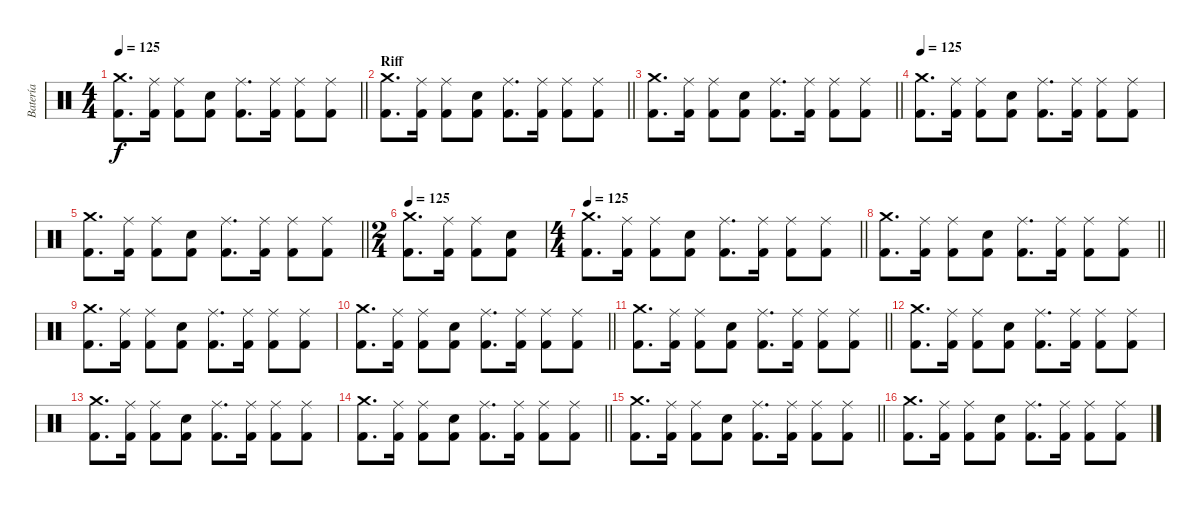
\track ("Batería" "Batería") {instrument percussion}
\staff {score}
\articulation defaults
\ts (4 4)
\tempo 125
\clef neutral
\barLineRight lightlight
\ks c
("Crash medium (hit)" "Kick (hit) 2").8{d dy f} ("Ride (middle)" "Kick (hit) 2").16 ("Ride (middle)" "Kick (hit) 2").8 ("Electric Snare (hit)" "Kick (hit) 2").8 ("Ride (middle)" "Kick (hit) 2").8{d} ("Ride (middle)" "Kick (hit) 2").16 ("Ride (middle)" "Kick (hit) 2").8 ("Ride (middle)" "Kick (hit) 2").8 |
\section ("" "Riff")
\barLineRight lightlight
("Crash medium (hit)" "Kick (hit) 2").8{d} ("Ride (middle)" "Kick (hit) 2").16 ("Ride (middle)" "Kick (hit) 2").8 ("Electric Snare (hit)" "Kick (hit) 2").8 ("Ride (middle)" "Kick (hit) 2").8{d} ("Ride (middle)" "Kick (hit) 2").16 ("Ride (middle)" "Kick (hit) 2").8 ("Ride (middle)" "Kick (hit) 2").8 |
\barLineRight lightlight
("Crash medium (hit)" "Kick (hit) 2").8{d} ("Ride (middle)" "Kick (hit) 2").16 ("Ride (middle)" "Kick (hit) 2").8 ("Electric Snare (hit)" "Kick (hit) 2").8 ("Ride (middle)" "Kick (hit) 2").8{d} ("Ride (middle)" "Kick (hit) 2").16 ("Ride (middle)" "Kick (hit) 2").8 ("Ride (middle)" "Kick (hit) 2").8 |
\tempo 125
("Crash medium (hit)" "Kick (hit) 2").8{d} ("Ride (middle)" "Kick (hit) 2").16 ("Ride (middle)" "Kick (hit) 2").8 ("Electric Snare (hit)" "Kick (hit) 2").8 ("Ride (middle)" "Kick (hit) 2").8{d} ("Ride (middle)" "Kick (hit) 2").16 ("Ride (middle)" "Kick (hit) 2").8 ("Ride (middle)" "Kick (hit) 2").8 |
\barLineRight lightlight
("Crash medium (hit)" "Kick (hit) 2").8{d} ("Ride (middle)" "Kick (hit) 2").16 ("Ride (middle)" "Kick (hit) 2").8 ("Electric Snare (hit)" "Kick (hit) 2").8 ("Ride (middle)" "Kick (hit) 2").8{d} ("Ride (middle)" "Kick (hit) 2").16 ("Ride (middle)" "Kick (hit) 2").8 ("Ride (middle)" "Kick (hit) 2").8 |
\ts (2 4)
\tempo 125
("Crash medium (hit)" "Kick (hit) 2").8{d} ("Ride (middle)" "Kick (hit) 2").16 ("Ride (middle)" "Kick (hit) 2").8 ("Electric Snare (hit)" "Kick (hit) 2").8 |
\ts (4 4)
\tempo 125
\barLineRight lightlight
("Crash medium (hit)" "Kick (hit) 2").8{d} ("Ride (middle)" "Kick (hit) 2").16 ("Ride (middle)" "Kick (hit) 2").8 ("Electric Snare (hit)" "Kick (hit) 2").8 ("Ride (middle)" "Kick (hit) 2").8{d} ("Ride (middle)" "Kick (hit) 2").16 ("Ride (middle)" "Kick (hit) 2").8 ("Ride (middle)" "Kick (hit) 2").8 |
\barLineRight lightlight
("Crash medium (hit)" "Kick (hit) 2").8{d} ("Ride (middle)" "Kick (hit) 2").16 ("Ride (middle)" "Kick (hit) 2").8 ("Electric Snare (hit)" "Kick (hit) 2").8 ("Ride (middle)" "Kick (hit) 2").8{d} ("Ride (middle)" "Kick (hit) 2").16 ("Ride (middle)" "Kick (hit) 2").8 ("Ride (middle)" "Kick (hit) 2").8 |
("Crash medium (hit)" "Kick (hit) 2").8{d} ("Ride (middle)" "Kick (hit) 2").16 ("Ride (middle)" "Kick (hit) 2").8 ("Electric Snare (hit)" "Kick (hit) 2").8 ("Ride (middle)" "Kick (hit) 2").8{d} ("Ride (middle)" "Kick (hit) 2").16 ("Ride (middle)" "Kick (hit) 2").8 ("Ride (middle)" "Kick (hit) 2").8 |
\barLineRight lightlight
("Crash medium (hit)" "Kick (hit) 2").8{d} ("Ride (middle)" "Kick (hit) 2").16 ("Ride (middle)" "Kick (hit) 2").8 ("Electric Snare (hit)" "Kick (hit) 2").8 ("Ride (middle)" "Kick (hit) 2").8{d} ("Ride (middle)" "Kick (hit) 2").16 ("Ride (middle)" "Kick (hit) 2").8 ("Ride (middle)" "Kick (hit) 2").8 |
\barLineRight lightlight
("Crash medium (hit)" "Kick (hit) 2").8{d} ("Ride (middle)" "Kick (hit) 2").16 ("Ride (middle)" "Kick (hit) 2").8 ("Electric Snare (hit)" "Kick (hit) 2").8 ("Ride (middle)" "Kick (hit) 2").8{d} ("Ride (middle)" "Kick (hit) 2").16 ("Ride (middle)" "Kick (hit) 2").8 ("Ride (middle)" "Kick (hit) 2").8 |
("Crash medium (hit)" "Kick (hit) 2").8{d} ("Ride (middle)" "Kick (hit) 2").16 ("Ride (middle)" "Kick (hit) 2").8 ("Electric Snare (hit)" "Kick (hit) 2").8 ("Ride (middle)" "Kick (hit) 2").8{d} ("Ride (middle)" "Kick (hit) 2").16 ("Ride (middle)" "Kick (hit) 2").8 ("Ride (middle)" "Kick (hit) 2").8 |
("Crash medium (hit)" "Kick (hit) 2").8{d} ("Ride (middle)" "Kick (hit) 2").16 ("Ride (middle)" "Kick (hit) 2").8 ("Electric Snare (hit)" "Kick (hit) 2").8 ("Ride (middle)" "Kick (hit) 2").8{d} ("Ride (middle)" "Kick (hit) 2").16 ("Ride (middle)" "Kick (hit) 2").8 ("Ride (middle)" "Kick (hit) 2").8 |
\barLineRight lightlight
("Crash medium (hit)" "Kick (hit) 2").8{d} ("Ride (middle)" "Kick (hit) 2").16 ("Ride (middle)" "Kick (hit) 2").8 ("Electric Snare (hit)" "Kick (hit) 2").8 ("Ride (middle)" "Kick (hit) 2").8{d} ("Ride (middle)" "Kick (hit) 2").16 ("Ride (middle)" "Kick (hit) 2").8 ("Ride (middle)" "Kick (hit) 2").8 |
\barLineRight lightlight
("Crash medium (hit)" "Kick (hit) 2").8{d} ("Ride (middle)" "Kick (hit) 2").16 ("Ride (middle)" "Kick (hit) 2").8 ("Electric Snare (hit)" "Kick (hit) 2").8 ("Ride (middle)" "Kick (hit) 2").8{d} ("Ride (middle)" "Kick (hit) 2").16 ("Ride (middle)" "Kick (hit) 2").8 ("Ride (middle)" "Kick (hit) 2").8 |
("Crash medium (hit)" "Kick (hit) 2").8{d} ("Ride (middle)" "Kick (hit) 2").16 ("Ride (middle)" "Kick (hit) 2").8 ("Electric Snare (hit)" "Kick (hit) 2").8 ("Ride (middle)" "Kick (hit) 2").8{d} ("Ride (middle)" "Kick (hit) 2").16 ("Ride (middle)" "Kick (hit) 2").8 ("Ride (middle)" "Kick (hit) 2").8
